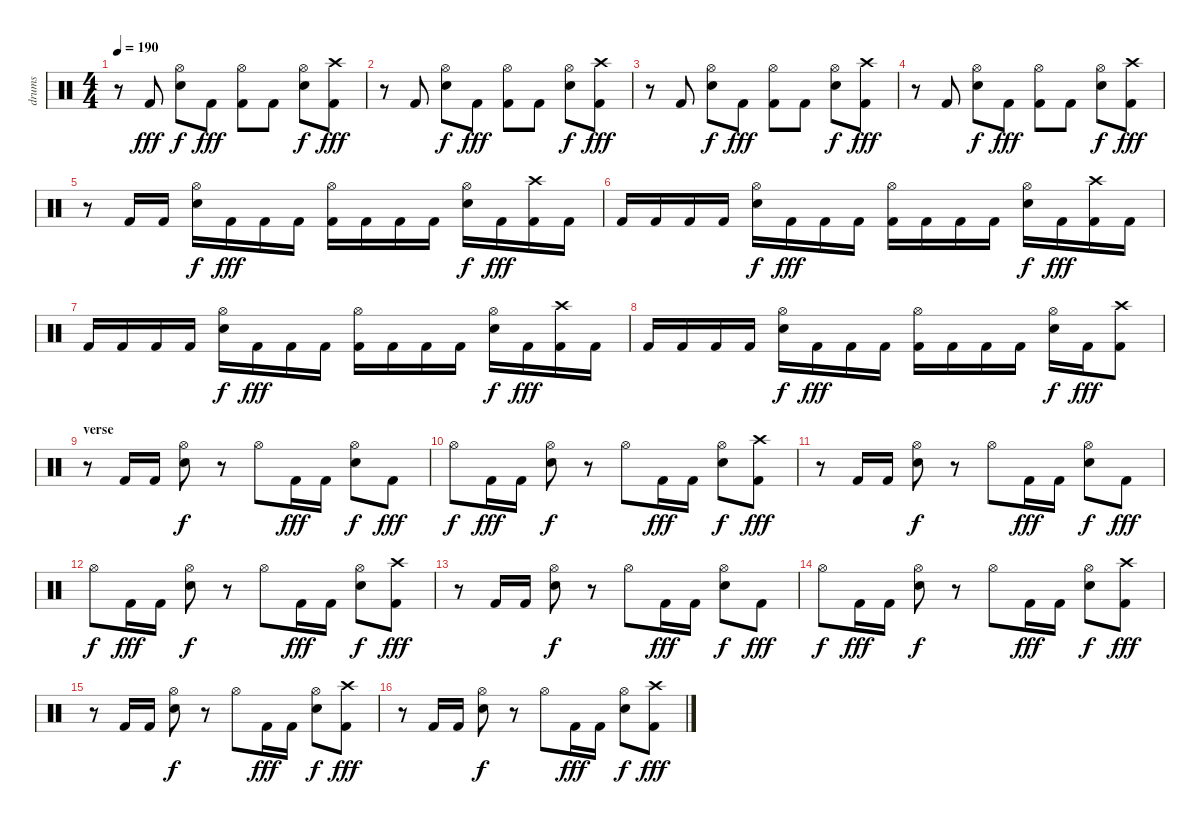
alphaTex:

\track ("drums" "drums") {instrument percussion}
\staff {score}
\articulation defaults
\ts (4 4)
\tempo 190
\clef neutral
\ks c
r.8{dy fff} "Kick (hit) 2".8 ("Hi-Hat (open)" "Snare (hit) 2").8{dy f} "Kick (hit) 2".8{dy fff} ("Hi-Hat (open)" "Kick (hit) 2").8 "Kick (hit) 2".8 ("Hi-Hat (open)" "Snare (hit) 2").8{dy f} ("Crash high (hit)" "Kick (hit) 2").8{dy fff} |
r.8 "Kick (hit) 2".8 ("Hi-Hat (open)" "Snare (hit) 2").8{dy f} "Kick (hit) 2".8{dy fff} ("Hi-Hat (open)" "Kick (hit) 2").8 "Kick (hit) 2".8 ("Hi-Hat (open)" "Snare (hit) 2").8{dy f} ("Crash high (hit)" "Kick (hit) 2").8{dy fff} |
r.8 "Kick (hit) 2".8 ("Hi-Hat (open)" "Snare (hit) 2").8{dy f} "Kick (hit) 2".8{dy fff} ("Hi-Hat (open)" "Kick (hit) 2").8 "Kick (hit) 2".8 ("Hi-Hat (open)" "Snare (hit) 2").8{dy f} ("Crash high (hit)" "Kick (hit) 2").8{dy fff} |
r.8 "Kick (hit) 2".8 ("Hi-Hat (open)" "Snare (hit) 2").8{dy f} "Kick (hit) 2".8{dy fff} ("Hi-Hat (open)" "Kick (hit) 2").8 "Kick (hit) 2".8 ("Hi-Hat (open)" "Snare (hit) 2").8{dy f} ("Crash high (hit)" "Kick (hit) 2").8{dy fff} |
r.8 "Kick (hit) 2".16 "Kick (hit) 2".16 ("Hi-Hat (open)" "Snare (hit) 2").16{dy f} "Kick (hit) 2".16{dy fff} "Kick (hit) 2".16 "Kick (hit) 2".16 ("Hi-Hat (open)" "Kick (hit) 2").16 "Kick (hit) 2".16 "Kick (hit) 2".16 "Kick (hit) 2".16 ("Hi-Hat (open)" "Snare (hit) 2").16{dy f} "Kick (hit) 2".16{dy fff} ("Crash high (hit)" "Kick (hit) 2").16 "Kick (hit) 2".16 |
"Kick (hit) 2".16 "Kick (hit) 2".16 "Kick (hit) 2".16 "Kick (hit) 2".16 ("Hi-Hat (open)" "Snare (hit) 2").16{dy f} "Kick (hit) 2".16{dy fff} "Kick (hit) 2".16 "Kick (hit) 2".16 ("Hi-Hat (open)" "Kick (hit) 2").16 "Kick (hit) 2".16 "Kick (hit) 2".16 "Kick (hit) 2".16 ("Hi-Hat (open)" "Snare (hit) 2").16{dy f} "Kick (hit) 2".16{dy fff} ("Crash high (hit)" "Kick (hit) 2").16 "Kick (hit) 2".16 |
"Kick (hit) 2".16 "Kick (hit) 2".16 "Kick (hit) 2".16 "Kick (hit) 2".16 ("Hi-Hat (open)" "Snare (hit) 2").16{dy f} "Kick (hit) 2".16{dy fff} "Kick (hit) 2".16 "Kick (hit) 2".16 ("Hi-Hat (open)" "Kick (hit) 2").16 "Kick (hit) 2".16 "Kick (hit) 2".16 "Kick (hit) 2".16 ("Hi-Hat (open)" "Snare (hit) 2").16{dy f} "Kick (hit) 2".16{dy fff} ("Crash high (hit)" "Kick (hit) 2").16 "Kick (hit) 2".16 |
"Kick (hit) 2".16 "Kick (hit) 2".16 "Kick (hit) 2".16 "Kick (hit) 2".16 ("Hi-Hat (open)" "Snare (hit) 2").16{dy f} "Kick (hit) 2".16{dy fff} "Kick (hit) 2".16 "Kick (hit) 2".16 ("Hi-Hat (open)" "Kick (hit) 2").16 "Kick (hit) 2".16 "Kick (hit) 2".16 "Kick (hit) 2".16 ("Hi-Hat (open)" "Snare (hit) 2").16{dy f} "Kick (hit) 2".16{dy fff} ("Crash high (hit)" "Kick (hit) 2").8 |
\section ("" "verse")
r.8 "Kick (hit) 2".16 "Kick (hit) 2".16 ("Hi-Hat (open)" "Snare (hit) 2").8{dy f} r.8 "Hi-Hat (open)".8 "Kick (hit) 2".16{dy fff} "Kick (hit) 2".16 ("Hi-Hat (open)" "Snare (hit) 2").8{dy f} "Kick (hit) 2".8{dy fff} |
"Hi-Hat (open)".8{dy f} "Kick (hit) 2".16{dy fff} "Kick (hit) 2".16 ("Hi-Hat (open)" "Snare (hit) 2").8{dy f} r.8 "Hi-Hat (open)".8 "Kick (hit) 2".16{dy fff} "Kick (hit) 2".16 ("Hi-Hat (open)" "Snare (hit) 2").8{dy f} ("Crash high (hit)" "Kick (hit) 2").8{dy fff} |
r.8 "Kick (hit) 2".16 "Kick (hit) 2".16 ("Hi-Hat (open)" "Snare (hit) 2").8{dy f} r.8 "Hi-Hat (open)".8 "Kick (hit) 2".16{dy fff} "Kick (hit) 2".16 ("Hi-Hat (open)" "Snare (hit) 2").8{dy f} "Kick (hit) 2".8{dy fff} |
"Hi-Hat (open)".8{dy f} "Kick (hit) 2".16{dy fff} "Kick (hit) 2".16 ("Hi-Hat (open)" "Snare (hit) 2").8{dy f} r.8 "Hi-Hat (open)".8 "Kick (hit) 2".16{dy fff} "Kick (hit) 2".16 ("Hi-Hat (open)" "Snare (hit) 2").8{dy f} ("Crash high (hit)" "Kick (hit) 2").8{dy fff} |
r.8 "Kick (hit) 2".16 "Kick (hit) 2".16 ("Hi-Hat (open)" "Snare (hit) 2").8{dy f} r.8 "Hi-Hat (open)".8 "Kick (hit) 2".16{dy fff} "Kick (hit) 2".16 ("Hi-Hat (open)" "Snare (hit) 2").8{dy f} "Kick (hit) 2".8{dy fff} |
"Hi-Hat (open)".8{dy f} "Kick (hit) 2".16{dy fff} "Kick (hit) 2".16 ("Hi-Hat (open)" "Snare (hit) 2").8{dy f} r.8 "Hi-Hat (open)".8 "Kick (hit) 2".16{dy fff} "Kick (hit) 2".16 ("Hi-Hat (open)" "Snare (hit) 2").8{dy f} ("Crash high (hit)" "Kick (hit) 2").8{dy fff} |
r.8 "Kick (hit) 2".16 "Kick (hit) 2".16 ("Hi-Hat (open)" "Snare (hit) 2").8{dy f} r.8 "Hi-Hat (open)".8 "Kick (hit) 2".16{dy fff} "Kick (hit) 2".16 ("Hi-Hat (open)" "Snare (hit) 2").8{dy f} ("Crash high (hit)" "Kick (hit) 2").8{dy fff} |
r.8 "Kick (hit) 2".16 "Kick (hit) 2".16 ("Hi-Hat (open)" "Snare (hit) 2").8{dy f} r.8 "Hi-Hat (open)".8 "Kick (hit) 2".16{dy fff} "Kick (hit) 2".16 ("Hi-Hat (open)" "Snare (hit) 2").8{dy f} ("Crash high (hit)" "Kick (hit) 2").8{dy fff}
